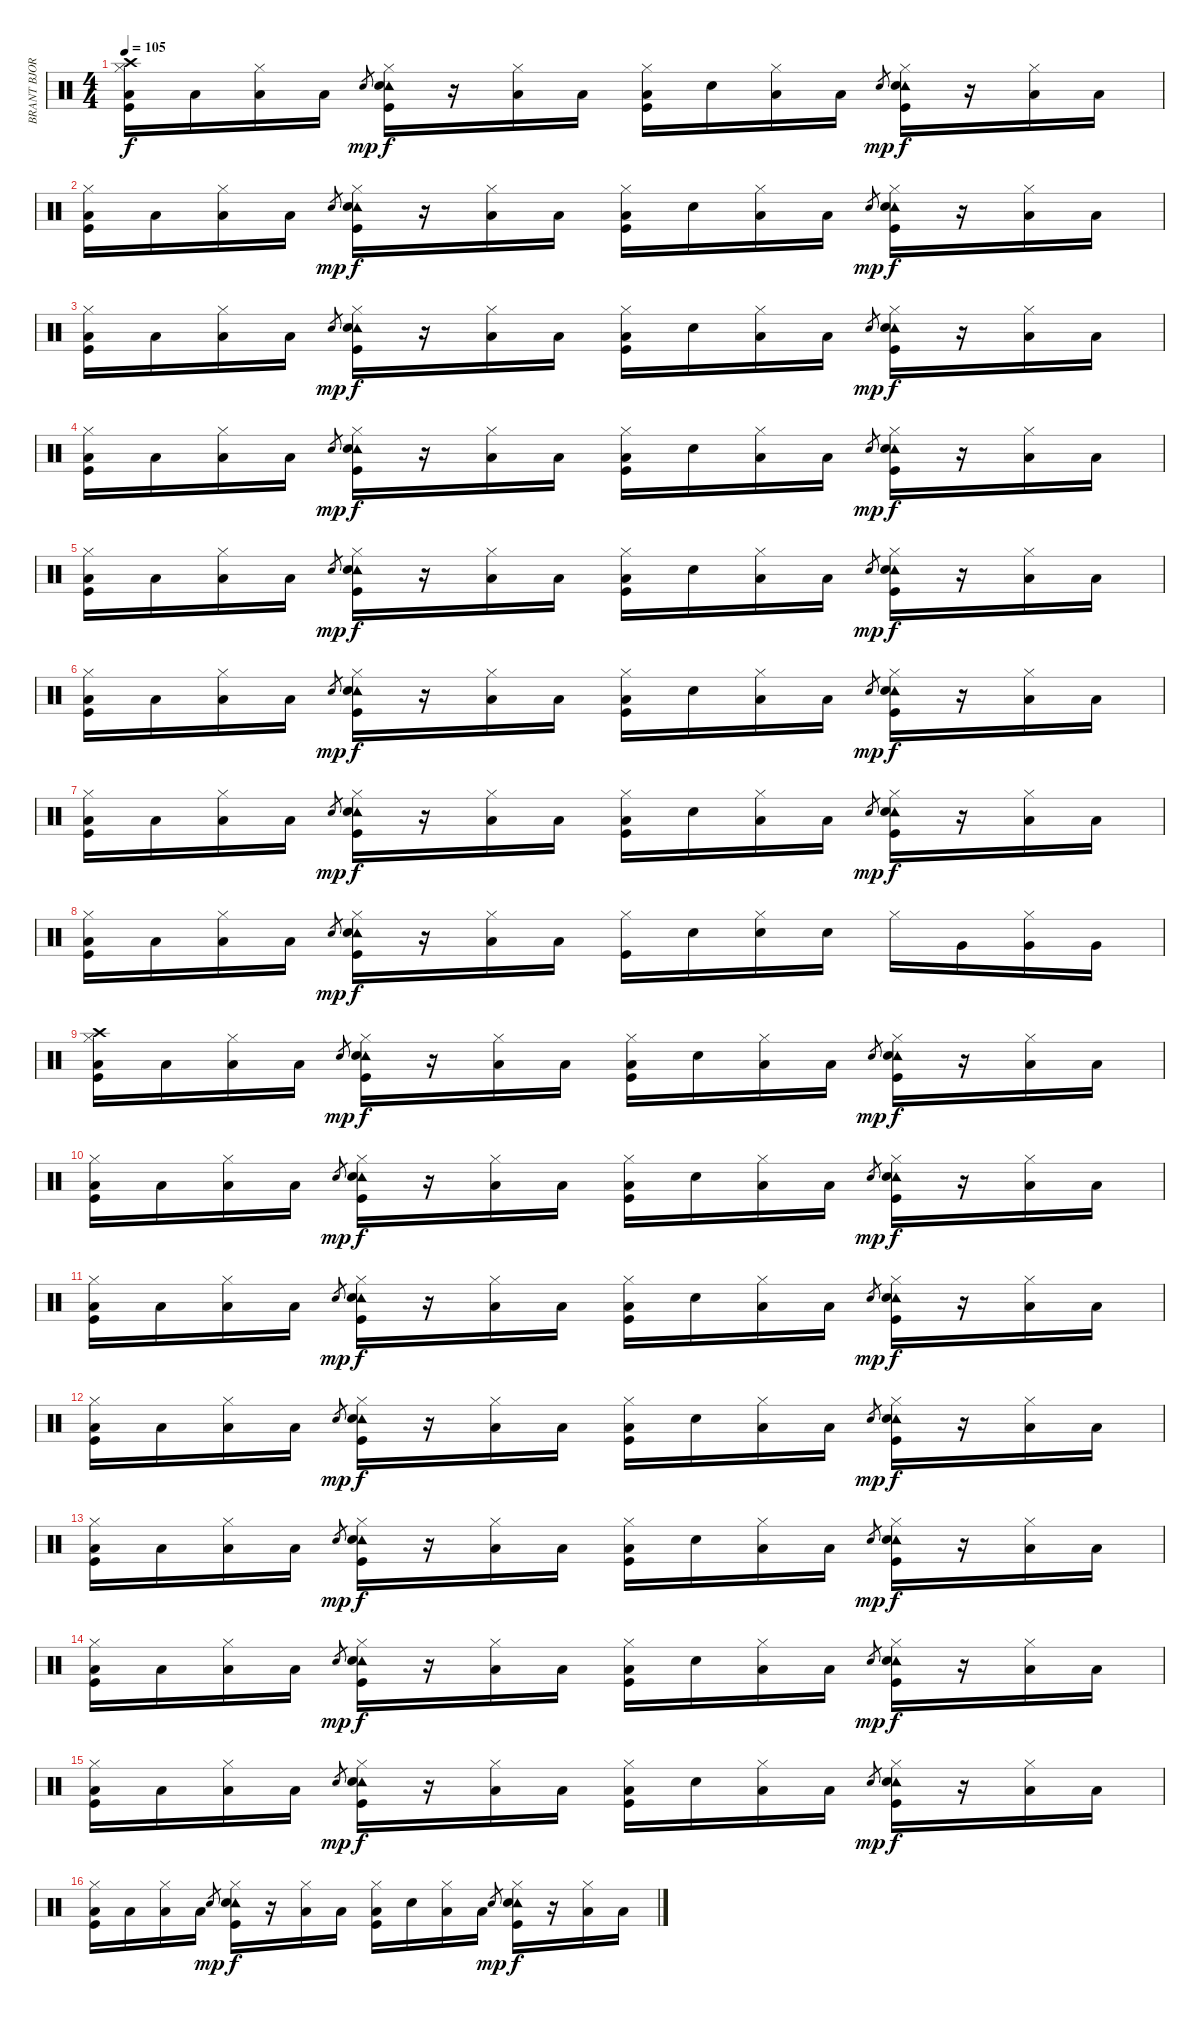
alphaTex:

\track ("BRANT BJORK -  DRUMS" "BRANT BJOR") {instrument percussion}
\staff {score}
\articulation defaults
\ts (4 4)
\tempo 105
\clef neutral
\ks c
("Crash high (hit)" "Hi-Hat (closed)" "Low Floor Tom (hit)" "Kick (hit)").16{dy f} "Low Floor Tom (hit)".16 ("Hi-Hat (closed)" "Low Floor Tom (hit)").16 "Low Floor Tom (hit)".16 "Snare (hit) 2".8{gr dy mp} ("Tambourine (hit)" "Hi-Hat (closed)" "Snare (hit) 2" "Kick (hit)").16{dy f} r.16 ("Hi-Hat (closed)" "Low Floor Tom (hit)").16 "Low Floor Tom (hit)".16 ("Hi-Hat (closed)" "Low Floor Tom (hit)" "Kick (hit)").16 "Snare (hit) 2".16 ("Hi-Hat (closed)" "Low Floor Tom (hit)").16 "Low Floor Tom (hit)".16 "Snare (hit) 2".8{gr dy mp} ("Tambourine (hit)" "Hi-Hat (closed)" "Snare (hit) 2" "Kick (hit)").16{dy f} r.16 ("Hi-Hat (closed)" "Low Floor Tom (hit)").16 "Low Floor Tom (hit)".16 |
("Hi-Hat (closed)" "Low Floor Tom (hit)" "Kick (hit)").16 "Low Floor Tom (hit)".16 ("Hi-Hat (closed)" "Low Floor Tom (hit)").16 "Low Floor Tom (hit)".16 "Snare (hit) 2".8{gr dy mp} ("Tambourine (hit)" "Hi-Hat (closed)" "Snare (hit) 2" "Kick (hit)").16{dy f} r.16 ("Hi-Hat (closed)" "Low Floor Tom (hit)").16 "Low Floor Tom (hit)".16 ("Hi-Hat (closed)" "Low Floor Tom (hit)" "Kick (hit)").16 "Snare (hit) 2".16 ("Hi-Hat (closed)" "Low Floor Tom (hit)").16 "Low Floor Tom (hit)".16 "Snare (hit) 2".8{gr dy mp} ("Tambourine (hit)" "Hi-Hat (closed)" "Snare (hit) 2" "Kick (hit)").16{dy f} r.16 ("Hi-Hat (closed)" "Low Floor Tom (hit)").16 "Low Floor Tom (hit)".16 |
("Hi-Hat (closed)" "Low Floor Tom (hit)" "Kick (hit)").16 "Low Floor Tom (hit)".16 ("Hi-Hat (closed)" "Low Floor Tom (hit)").16 "Low Floor Tom (hit)".16 "Snare (hit) 2".8{gr dy mp} ("Tambourine (hit)" "Hi-Hat (closed)" "Snare (hit) 2" "Kick (hit)").16{dy f} r.16 ("Hi-Hat (closed)" "Low Floor Tom (hit)").16 "Low Floor Tom (hit)".16 ("Hi-Hat (closed)" "Low Floor Tom (hit)" "Kick (hit)").16 "Snare (hit) 2".16 ("Hi-Hat (closed)" "Low Floor Tom (hit)").16 "Low Floor Tom (hit)".16 "Snare (hit) 2".8{gr dy mp} ("Tambourine (hit)" "Hi-Hat (closed)" "Snare (hit) 2" "Kick (hit)").16{dy f} r.16 ("Hi-Hat (closed)" "Low Floor Tom (hit)").16 "Low Floor Tom (hit)".16 |
("Hi-Hat (closed)" "Low Floor Tom (hit)" "Kick (hit)").16 "Low Floor Tom (hit)".16 ("Hi-Hat (closed)" "Low Floor Tom (hit)").16 "Low Floor Tom (hit)".16 "Snare (hit) 2".8{gr dy mp} ("Tambourine (hit)" "Hi-Hat (closed)" "Snare (hit) 2" "Kick (hit)").16{dy f} r.16 ("Hi-Hat (closed)" "Low Floor Tom (hit)").16 "Low Floor Tom (hit)".16 ("Hi-Hat (closed)" "Low Floor Tom (hit)" "Kick (hit)").16 "Snare (hit) 2".16 ("Hi-Hat (closed)" "Low Floor Tom (hit)").16 "Low Floor Tom (hit)".16 "Snare (hit) 2".8{gr dy mp} ("Tambourine (hit)" "Hi-Hat (closed)" "Snare (hit) 2" "Kick (hit)").16{dy f} r.16 ("Hi-Hat (closed)" "Low Floor Tom (hit)").16 "Low Floor Tom (hit)".16 |
("Hi-Hat (closed)" "Low Floor Tom (hit)" "Kick (hit)").16 "Low Floor Tom (hit)".16 ("Hi-Hat (closed)" "Low Floor Tom (hit)").16 "Low Floor Tom (hit)".16 "Snare (hit) 2".8{gr dy mp} ("Tambourine (hit)" "Hi-Hat (closed)" "Snare (hit) 2" "Kick (hit)").16{dy f} r.16 ("Hi-Hat (closed)" "Low Floor Tom (hit)").16 "Low Floor Tom (hit)".16 ("Hi-Hat (closed)" "Low Floor Tom (hit)" "Kick (hit)").16 "Snare (hit) 2".16 ("Hi-Hat (closed)" "Low Floor Tom (hit)").16 "Low Floor Tom (hit)".16 "Snare (hit) 2".8{gr dy mp} ("Tambourine (hit)" "Hi-Hat (closed)" "Snare (hit) 2" "Kick (hit)").16{dy f} r.16 ("Hi-Hat (closed)" "Low Floor Tom (hit)").16 "Low Floor Tom (hit)".16 |
("Hi-Hat (closed)" "Low Floor Tom (hit)" "Kick (hit)").16 "Low Floor Tom (hit)".16 ("Hi-Hat (closed)" "Low Floor Tom (hit)").16 "Low Floor Tom (hit)".16 "Snare (hit) 2".8{gr dy mp} ("Tambourine (hit)" "Hi-Hat (closed)" "Snare (hit) 2" "Kick (hit)").16{dy f} r.16 ("Hi-Hat (closed)" "Low Floor Tom (hit)").16 "Low Floor Tom (hit)".16 ("Hi-Hat (closed)" "Low Floor Tom (hit)" "Kick (hit)").16 "Snare (hit) 2".16 ("Hi-Hat (closed)" "Low Floor Tom (hit)").16 "Low Floor Tom (hit)".16 "Snare (hit) 2".8{gr dy mp} ("Tambourine (hit)" "Hi-Hat (closed)" "Snare (hit) 2" "Kick (hit)").16{dy f} r.16 ("Hi-Hat (closed)" "Low Floor Tom (hit)").16 "Low Floor Tom (hit)".16 |
("Hi-Hat (closed)" "Low Floor Tom (hit)" "Kick (hit)").16 "Low Floor Tom (hit)".16 ("Hi-Hat (closed)" "Low Floor Tom (hit)").16 "Low Floor Tom (hit)".16 "Snare (hit) 2".8{gr dy mp} ("Tambourine (hit)" "Hi-Hat (closed)" "Snare (hit) 2" "Kick (hit)").16{dy f} r.16 ("Hi-Hat (closed)" "Low Floor Tom (hit)").16 "Low Floor Tom (hit)".16 ("Hi-Hat (closed)" "Low Floor Tom (hit)" "Kick (hit)").16 "Snare (hit) 2".16 ("Hi-Hat (closed)" "Low Floor Tom (hit)").16 "Low Floor Tom (hit)".16 "Snare (hit) 2".8{gr dy mp} ("Tambourine (hit)" "Hi-Hat (closed)" "Snare (hit) 2" "Kick (hit)").16{dy f} r.16 ("Hi-Hat (closed)" "Low Floor Tom (hit)").16 "Low Floor Tom (hit)".16 |
("Hi-Hat (closed)" "Low Floor Tom (hit)" "Kick (hit)").16 "Low Floor Tom (hit)".16 ("Hi-Hat (closed)" "Low Floor Tom (hit)").16 "Low Floor Tom (hit)".16 "Snare (hit) 2".8{gr dy mp} ("Tambourine (hit)" "Hi-Hat (closed)" "Snare (hit) 2" "Kick (hit)").16{dy f} r.16 ("Hi-Hat (closed)" "Low Floor Tom (hit)").16 "Low Floor Tom (hit)".16 ("Hi-Hat (closed)" "Kick (hit)").16 "Snare (hit) 2".16 ("Hi-Hat (closed)" "Snare (hit) 2").16 "Snare (hit) 2".16 "Hi-Hat (closed)".16 "Very Low Tom (hit)".16 ("Hi-Hat (closed)" "Very Low Tom (hit)").16 "Very Low Tom (hit)".16 |
("Crash high (hit)" "Hi-Hat (closed)" "Low Floor Tom (hit)" "Kick (hit)").16 "Low Floor Tom (hit)".16 ("Hi-Hat (closed)" "Low Floor Tom (hit)").16 "Low Floor Tom (hit)".16 "Snare (hit) 2".8{gr dy mp} ("Tambourine (hit)" "Hi-Hat (closed)" "Snare (hit) 2" "Kick (hit)").16{dy f} r.16 ("Hi-Hat (closed)" "Low Floor Tom (hit)").16 "Low Floor Tom (hit)".16 ("Hi-Hat (closed)" "Low Floor Tom (hit)" "Kick (hit)").16 "Snare (hit) 2".16 ("Hi-Hat (closed)" "Low Floor Tom (hit)").16 "Low Floor Tom (hit)".16 "Snare (hit) 2".8{gr dy mp} ("Tambourine (hit)" "Hi-Hat (closed)" "Snare (hit) 2" "Kick (hit)").16{dy f} r.16 ("Hi-Hat (closed)" "Low Floor Tom (hit)").16 "Low Floor Tom (hit)".16 |
("Hi-Hat (closed)" "Low Floor Tom (hit)" "Kick (hit)").16 "Low Floor Tom (hit)".16 ("Hi-Hat (closed)" "Low Floor Tom (hit)").16 "Low Floor Tom (hit)".16 "Snare (hit) 2".8{gr dy mp} ("Tambourine (hit)" "Hi-Hat (closed)" "Snare (hit) 2" "Kick (hit)").16{dy f} r.16 ("Hi-Hat (closed)" "Low Floor Tom (hit)").16 "Low Floor Tom (hit)".16 ("Hi-Hat (closed)" "Low Floor Tom (hit)" "Kick (hit)").16 "Snare (hit) 2".16 ("Hi-Hat (closed)" "Low Floor Tom (hit)").16 "Low Floor Tom (hit)".16 "Snare (hit) 2".8{gr dy mp} ("Tambourine (hit)" "Hi-Hat (closed)" "Snare (hit) 2" "Kick (hit)").16{dy f} r.16 ("Hi-Hat (closed)" "Low Floor Tom (hit)").16 "Low Floor Tom (hit)".16 |
("Hi-Hat (closed)" "Low Floor Tom (hit)" "Kick (hit)").16 "Low Floor Tom (hit)".16 ("Hi-Hat (closed)" "Low Floor Tom (hit)").16 "Low Floor Tom (hit)".16 "Snare (hit) 2".8{gr dy mp} ("Tambourine (hit)" "Hi-Hat (closed)" "Snare (hit) 2" "Kick (hit)").16{dy f} r.16 ("Hi-Hat (closed)" "Low Floor Tom (hit)").16 "Low Floor Tom (hit)".16 ("Hi-Hat (closed)" "Low Floor Tom (hit)" "Kick (hit)").16 "Snare (hit) 2".16 ("Hi-Hat (closed)" "Low Floor Tom (hit)").16 "Low Floor Tom (hit)".16 "Snare (hit) 2".8{gr dy mp} ("Tambourine (hit)" "Hi-Hat (closed)" "Snare (hit) 2" "Kick (hit)").16{dy f} r.16 ("Hi-Hat (closed)" "Low Floor Tom (hit)").16 "Low Floor Tom (hit)".16 |
("Hi-Hat (closed)" "Low Floor Tom (hit)" "Kick (hit)").16 "Low Floor Tom (hit)".16 ("Hi-Hat (closed)" "Low Floor Tom (hit)").16 "Low Floor Tom (hit)".16 "Snare (hit) 2".8{gr dy mp} ("Tambourine (hit)" "Hi-Hat (closed)" "Snare (hit) 2" "Kick (hit)").16{dy f} r.16 ("Hi-Hat (closed)" "Low Floor Tom (hit)").16 "Low Floor Tom (hit)".16 ("Hi-Hat (closed)" "Low Floor Tom (hit)" "Kick (hit)").16 "Snare (hit) 2".16 ("Hi-Hat (closed)" "Low Floor Tom (hit)").16 "Low Floor Tom (hit)".16 "Snare (hit) 2".8{gr dy mp} ("Tambourine (hit)" "Hi-Hat (closed)" "Snare (hit) 2" "Kick (hit)").16{dy f} r.16 ("Hi-Hat (closed)" "Low Floor Tom (hit)").16 "Low Floor Tom (hit)".16 |
("Hi-Hat (closed)" "Low Floor Tom (hit)" "Kick (hit)").16 "Low Floor Tom (hit)".16 ("Hi-Hat (closed)" "Low Floor Tom (hit)").16 "Low Floor Tom (hit)".16 "Snare (hit) 2".8{gr dy mp} ("Tambourine (hit)" "Hi-Hat (closed)" "Snare (hit) 2" "Kick (hit)").16{dy f} r.16 ("Hi-Hat (closed)" "Low Floor Tom (hit)").16 "Low Floor Tom (hit)".16 ("Hi-Hat (closed)" "Low Floor Tom (hit)" "Kick (hit)").16 "Snare (hit) 2".16 ("Hi-Hat (closed)" "Low Floor Tom (hit)").16 "Low Floor Tom (hit)".16 "Snare (hit) 2".8{gr dy mp} ("Tambourine (hit)" "Hi-Hat (closed)" "Snare (hit) 2" "Kick (hit)").16{dy f} r.16 ("Hi-Hat (closed)" "Low Floor Tom (hit)").16 "Low Floor Tom (hit)".16 |
("Hi-Hat (closed)" "Low Floor Tom (hit)" "Kick (hit)").16 "Low Floor Tom (hit)".16 ("Hi-Hat (closed)" "Low Floor Tom (hit)").16 "Low Floor Tom (hit)".16 "Snare (hit) 2".8{gr dy mp} ("Tambourine (hit)" "Hi-Hat (closed)" "Snare (hit) 2" "Kick (hit)").16{dy f} r.16 ("Hi-Hat (closed)" "Low Floor Tom (hit)").16 "Low Floor Tom (hit)".16 ("Hi-Hat (closed)" "Low Floor Tom (hit)" "Kick (hit)").16 "Snare (hit) 2".16 ("Hi-Hat (closed)" "Low Floor Tom (hit)").16 "Low Floor Tom (hit)".16 "Snare (hit) 2".8{gr dy mp} ("Tambourine (hit)" "Hi-Hat (closed)" "Snare (hit) 2" "Kick (hit)").16{dy f} r.16 ("Hi-Hat (closed)" "Low Floor Tom (hit)").16 "Low Floor Tom (hit)".16 |
("Hi-Hat (closed)" "Low Floor Tom (hit)" "Kick (hit)").16 "Low Floor Tom (hit)".16 ("Hi-Hat (closed)" "Low Floor Tom (hit)").16 "Low Floor Tom (hit)".16 "Snare (hit) 2".8{gr dy mp} ("Tambourine (hit)" "Hi-Hat (closed)" "Snare (hit) 2" "Kick (hit)").16{dy f} r.16 ("Hi-Hat (closed)" "Low Floor Tom (hit)").16 "Low Floor Tom (hit)".16 ("Hi-Hat (closed)" "Low Floor Tom (hit)" "Kick (hit)").16 "Snare (hit) 2".16 ("Hi-Hat (closed)" "Low Floor Tom (hit)").16 "Low Floor Tom (hit)".16 "Snare (hit) 2".8{gr dy mp} ("Tambourine (hit)" "Hi-Hat (closed)" "Snare (hit) 2" "Kick (hit)").16{dy f} r.16 ("Hi-Hat (closed)" "Low Floor Tom (hit)").16 "Low Floor Tom (hit)".16 |
("Hi-Hat (closed)" "Low Floor Tom (hit)" "Kick (hit)").16 "Low Floor Tom (hit)".16 ("Hi-Hat (closed)" "Low Floor Tom (hit)").16 "Low Floor Tom (hit)".16 "Snare (hit) 2".8{gr dy mp} ("Tambourine (hit)" "Hi-Hat (closed)" "Snare (hit) 2" "Kick (hit)").16{dy f} r.16 ("Hi-Hat (closed)" "Low Floor Tom (hit)").16 "Low Floor Tom (hit)".16 ("Hi-Hat (closed)" "Low Floor Tom (hit)" "Kick (hit)").16 "Snare (hit) 2".16 ("Hi-Hat (closed)" "Low Floor Tom (hit)").16 "Low Floor Tom (hit)".16 "Snare (hit) 2".8{gr dy mp} ("Tambourine (hit)" "Hi-Hat (closed)" "Snare (hit) 2" "Kick (hit)").16{dy f} r.16 ("Hi-Hat (closed)" "Low Floor Tom (hit)").16 "Low Floor Tom (hit)".16
